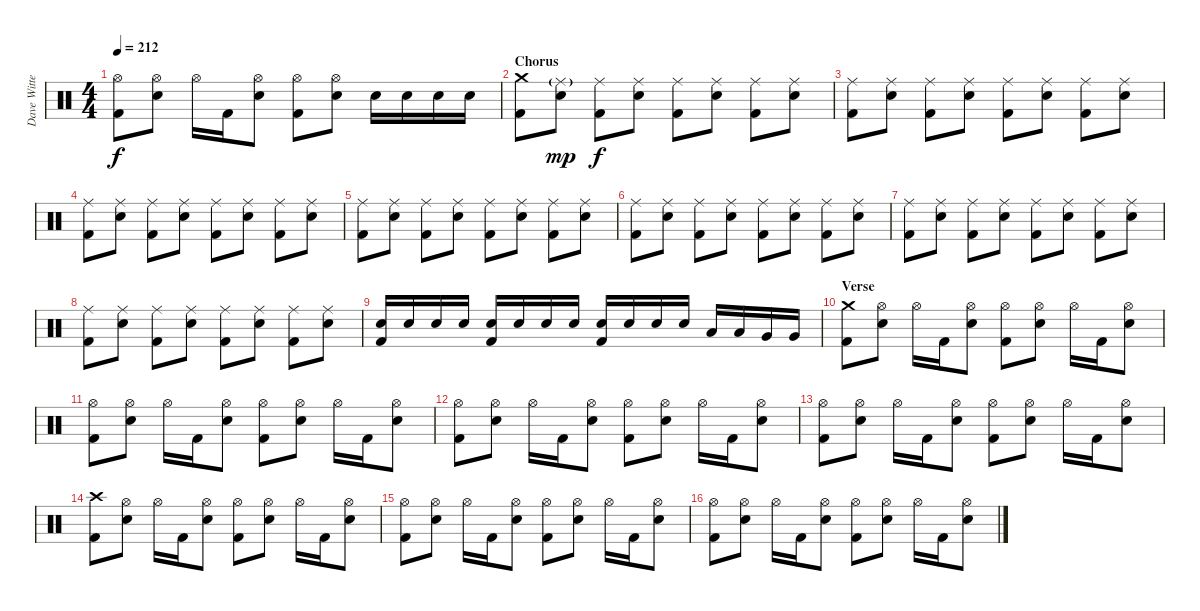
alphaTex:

\track ("Dave Witte" "Dave Witte") {instrument percussion}
\staff {score}
\articulation defaults
\ts (4 4)
\tempo 212
\clef neutral
\ks c
("Hi-Hat (open)" "Kick (hit) 2").8{dy f} ("Hi-Hat (open)" "Electric Snare (hit)").8 "Hi-Hat (open)".16 "Kick (hit) 2".16 ("Hi-Hat (open)" "Electric Snare (hit)").8 ("Hi-Hat (open)" "Kick (hit) 2").8 ("Hi-Hat (open)" "Electric Snare (hit)").8 "Electric Snare (hit)".16 "Electric Snare (hit)".16 "Electric Snare (hit)".16 "Electric Snare (hit)".16 |
\section ("" "Chorus")
("Crash medium (hit)" "Kick (hit) 2").8 ("Ride (middle)"{g} "Electric Snare (hit)").8{dy mp} ("Ride (middle)" "Kick (hit) 2").8{dy f} ("Ride (middle)" "Electric Snare (hit)").8 ("Ride (middle)" "Kick (hit) 2").8 ("Ride (middle)" "Electric Snare (hit)").8 ("Ride (middle)" "Kick (hit) 2").8 ("Ride (middle)" "Electric Snare (hit)").8 |
("Ride (middle)" "Kick (hit) 2").8 ("Ride (middle)" "Electric Snare (hit)").8 ("Ride (middle)" "Kick (hit) 2").8 ("Ride (middle)" "Electric Snare (hit)").8 ("Ride (middle)" "Kick (hit) 2").8 ("Ride (middle)" "Electric Snare (hit)").8 ("Ride (middle)" "Kick (hit) 2").8 ("Ride (middle)" "Electric Snare (hit)").8 |
("Ride (middle)" "Kick (hit) 2").8 ("Ride (middle)" "Electric Snare (hit)").8 ("Ride (middle)" "Kick (hit) 2").8 ("Ride (middle)" "Electric Snare (hit)").8 ("Ride (middle)" "Kick (hit) 2").8 ("Ride (middle)" "Electric Snare (hit)").8 ("Ride (middle)" "Kick (hit) 2").8 ("Ride (middle)" "Electric Snare (hit)").8 |
("Ride (middle)" "Kick (hit) 2").8 ("Ride (middle)" "Electric Snare (hit)").8 ("Ride (middle)" "Kick (hit) 2").8 ("Ride (middle)" "Electric Snare (hit)").8 ("Ride (middle)" "Kick (hit) 2").8 ("Ride (middle)" "Electric Snare (hit)").8 ("Ride (middle)" "Kick (hit) 2").8 ("Ride (middle)" "Electric Snare (hit)").8 |
("Ride (middle)" "Kick (hit) 2").8 ("Ride (middle)" "Electric Snare (hit)").8 ("Ride (middle)" "Kick (hit) 2").8 ("Ride (middle)" "Electric Snare (hit)").8 ("Ride (middle)" "Kick (hit) 2").8 ("Ride (middle)" "Electric Snare (hit)").8 ("Ride (middle)" "Kick (hit) 2").8 ("Ride (middle)" "Electric Snare (hit)").8 |
("Ride (middle)" "Kick (hit) 2").8 ("Ride (middle)" "Electric Snare (hit)").8 ("Ride (middle)" "Kick (hit) 2").8 ("Ride (middle)" "Electric Snare (hit)").8 ("Ride (middle)" "Kick (hit) 2").8 ("Ride (middle)" "Electric Snare (hit)").8 ("Ride (middle)" "Kick (hit) 2").8 ("Ride (middle)" "Electric Snare (hit)").8 |
("Ride (middle)" "Kick (hit) 2").8 ("Ride (middle)" "Electric Snare (hit)").8 ("Ride (middle)" "Kick (hit) 2").8 ("Ride (middle)" "Electric Snare (hit)").8 ("Ride (middle)" "Kick (hit) 2").8 ("Ride (middle)" "Electric Snare (hit)").8 ("Ride (middle)" "Kick (hit) 2").8 ("Ride (middle)" "Electric Snare (hit)").8 |
("Electric Snare (hit)" "Kick (hit) 2").16 "Electric Snare (hit)".16 "Electric Snare (hit)".16 "Electric Snare (hit)".16 ("Electric Snare (hit)" "Kick (hit) 2").16 "Electric Snare (hit)".16 "Electric Snare (hit)".16 "Electric Snare (hit)".16 ("Electric Snare (hit)" "Kick (hit) 2").16 "Electric Snare (hit)".16 "Electric Snare (hit)".16 "Electric Snare (hit)".16 "Low Tom (hit)".16 "Low Tom (hit)".16 "Very Low Tom (hit)".16 "Very Low Tom (hit)".16 |
\section ("" "Verse")
("Crash medium (hit)" "Kick (hit) 2").8 ("Hi-Hat (open)" "Electric Snare (hit)").8 "Hi-Hat (open)".16 "Kick (hit) 2".16 ("Hi-Hat (open)" "Electric Snare (hit)").8 ("Hi-Hat (open)" "Kick (hit) 2").8 ("Hi-Hat (open)" "Electric Snare (hit)").8 "Hi-Hat (open)".16 "Kick (hit) 2".16 ("Hi-Hat (open)" "Electric Snare (hit)").8 |
("Hi-Hat (open)" "Kick (hit) 2").8 ("Hi-Hat (open)" "Electric Snare (hit)").8 "Hi-Hat (open)".16 "Kick (hit) 2".16 ("Hi-Hat (open)" "Electric Snare (hit)").8 ("Hi-Hat (open)" "Kick (hit) 2").8 ("Hi-Hat (open)" "Electric Snare (hit)").8 "Hi-Hat (open)".16 "Kick (hit) 2".16 ("Hi-Hat (open)" "Electric Snare (hit)").8 |
("Hi-Hat (open)" "Kick (hit) 2").8 ("Hi-Hat (open)" "Electric Snare (hit)").8 "Hi-Hat (open)".16 "Kick (hit) 2".16 ("Hi-Hat (open)" "Electric Snare (hit)").8 ("Hi-Hat (open)" "Kick (hit) 2").8 ("Hi-Hat (open)" "Electric Snare (hit)").8 "Hi-Hat (open)".16 "Kick (hit) 2".16 ("Hi-Hat (open)" "Electric Snare (hit)").8 |
("Hi-Hat (open)" "Kick (hit) 2").8 ("Hi-Hat (open)" "Electric Snare (hit)").8 "Hi-Hat (open)".16 "Kick (hit) 2".16 ("Hi-Hat (open)" "Electric Snare (hit)").8 ("Hi-Hat (open)" "Kick (hit) 2").8 ("Hi-Hat (open)" "Electric Snare (hit)").8 "Hi-Hat (open)".16 "Kick (hit) 2".16 ("Hi-Hat (open)" "Electric Snare (hit)").8 |
("Crash high (hit)" "Kick (hit) 2").8 ("Hi-Hat (open)" "Electric Snare (hit)").8 "Hi-Hat (open)".16 "Kick (hit) 2".16 ("Hi-Hat (open)" "Electric Snare (hit)").8 ("Hi-Hat (open)" "Kick (hit) 2").8 ("Hi-Hat (open)" "Electric Snare (hit)").8 "Hi-Hat (open)".16 "Kick (hit) 2".16 ("Hi-Hat (open)" "Electric Snare (hit)").8 |
("Hi-Hat (open)" "Kick (hit) 2").8 ("Hi-Hat (open)" "Electric Snare (hit)").8 "Hi-Hat (open)".16 "Kick (hit) 2".16 ("Hi-Hat (open)" "Electric Snare (hit)").8 ("Hi-Hat (open)" "Kick (hit) 2").8 ("Hi-Hat (open)" "Electric Snare (hit)").8 "Hi-Hat (open)".16 "Kick (hit) 2".16 ("Hi-Hat (open)" "Electric Snare (hit)").8 |
("Hi-Hat (open)" "Kick (hit) 2").8 ("Hi-Hat (open)" "Electric Snare (hit)").8 "Hi-Hat (open)".16 "Kick (hit) 2".16 ("Hi-Hat (open)" "Electric Snare (hit)").8 ("Hi-Hat (open)" "Kick (hit) 2").8 ("Hi-Hat (open)" "Electric Snare (hit)").8 "Hi-Hat (open)".16 "Kick (hit) 2".16 ("Hi-Hat (open)" "Electric Snare (hit)").8
